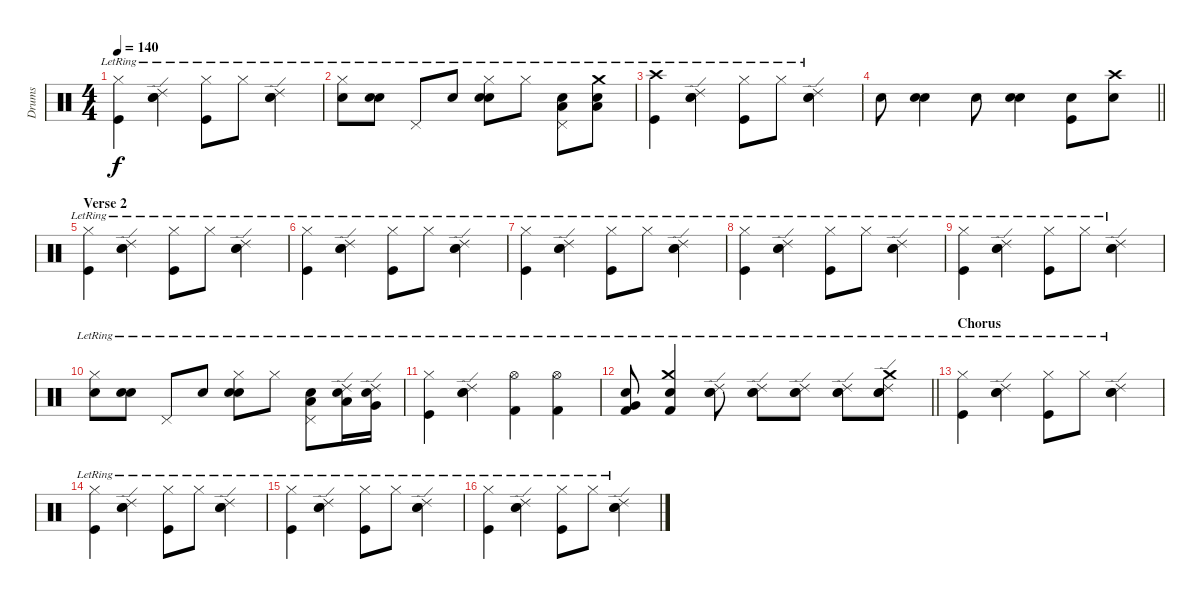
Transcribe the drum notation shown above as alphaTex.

\track ("Drums" "Drums") {instrument percussion}
\staff {score}
\articulation defaults
\ts (4 4)
\tempo 140
\clef neutral
\ks c
("Hi-Hat (closed)"{lr} "Kick (hit)"{lr}).4{dy f} ("Electric Snare (hit)"{lr} "Ride (edge) 2"{lr} "Snare (hit) 2"{lr}).4 ("Hi-Hat (closed)"{lr} "Kick (hit)"{lr}).8 "Hi-Hat (closed)"{lr}.8 ("Electric Snare (hit)"{lr} "Ride (edge) 2"{lr} "Snare (hit) 2"{lr}).4 |
("Hi-Hat (closed)"{lr} "Snare (hit) 2"{lr}).8 ("Snare (hit) 2"{lr} "Electric Snare (hit)"{lr}).8 "Pedal Hi-Hat (hit)"{lr}.8 "Snare (hit) 2"{lr}.8 ("Hi-Hat (closed)"{lr} "Snare (hit) 2"{lr} "Electric Snare (hit)"{lr}).8 "Hi-Hat (closed)"{lr}.8 ("Pedal Hi-Hat (hit)"{lr} "Snare (hit) 2"{lr} "Low Tom (hit)"{lr}).8 ("Crash medium (hit)"{lr} "Snare (hit) 2"{lr} "Low Tom (hit)"{lr}).8 |
("Crash high (hit)"{lr} "Kick (hit)"{lr}).4 ("Electric Snare (hit)"{lr} "Ride (edge) 2"{lr} "Snare (hit) 2"{lr}).4 ("Hi-Hat (closed)"{lr} "Kick (hit)"{lr}).8 "Hi-Hat (closed)"{lr}.8 ("Electric Snare (hit)"{lr} "Ride (edge) 2"{lr} "Snare (hit) 2"{lr}).4 |
\barLineRight lightlight "Snare (hit) 2".8
("Snare (hit) 2" "Electric Snare (hit)").4 "Snare (hit) 2".8 ("Snare (hit) 2" "Electric Snare (hit)").4 ("Snare (hit) 2" "Kick (hit)").8 ("Crash high (hit)" "Snare (hit) 2").8 |
\section ("" "Verse 2")
("Hi-Hat (closed)"{lr} "Kick (hit)"{lr}).4 ("Electric Snare (hit)"{lr} "Ride (edge) 2"{lr} "Snare (hit) 2"{lr}).4 ("Hi-Hat (closed)"{lr} "Kick (hit)"{lr}).8 "Hi-Hat (closed)"{lr}.8 ("Electric Snare (hit)"{lr} "Ride (edge) 2"{lr} "Snare (hit) 2"{lr}).4 |
("Hi-Hat (closed)"{lr} "Kick (hit)"{lr}).4 ("Electric Snare (hit)"{lr} "Ride (edge) 2"{lr} "Snare (hit) 2"{lr}).4 ("Hi-Hat (closed)"{lr} "Kick (hit)"{lr}).8 "Hi-Hat (closed)"{lr}.8 ("Electric Snare (hit)"{lr} "Ride (edge) 2"{lr} "Snare (hit) 2"{lr}).4 |
("Hi-Hat (closed)"{lr} "Kick (hit)"{lr}).4 ("Electric Snare (hit)"{lr} "Ride (edge) 2"{lr} "Snare (hit) 2"{lr}).4 ("Hi-Hat (closed)"{lr} "Kick (hit)"{lr}).8 "Hi-Hat (closed)"{lr}.8 ("Electric Snare (hit)"{lr} "Ride (edge) 2"{lr} "Snare (hit) 2"{lr}).4 |
("Hi-Hat (closed)"{lr} "Kick (hit)"{lr}).4 ("Electric Snare (hit)"{lr} "Ride (edge) 2"{lr} "Snare (hit) 2"{lr}).4 ("Hi-Hat (closed)"{lr} "Kick (hit)"{lr}).8 "Hi-Hat (closed)"{lr}.8 ("Electric Snare (hit)"{lr} "Ride (edge) 2"{lr} "Snare (hit) 2"{lr}).4 |
("Hi-Hat (closed)"{lr} "Kick (hit)"{lr}).4 ("Electric Snare (hit)"{lr} "Ride (edge) 2"{lr} "Snare (hit) 2"{lr}).4 ("Hi-Hat (closed)"{lr} "Kick (hit)"{lr}).8 "Hi-Hat (closed)"{lr}.8 ("Electric Snare (hit)"{lr} "Ride (edge) 2"{lr} "Snare (hit) 2"{lr}).4 |
("Hi-Hat (closed)"{lr} "Snare (hit) 2"{lr}).8 ("Snare (hit) 2"{lr} "Electric Snare (hit)"{lr}).8 "Pedal Hi-Hat (hit)"{lr}.8 "Snare (hit) 2"{lr}.8 ("Hi-Hat (closed)"{lr} "Snare (hit) 2"{lr} "Electric Snare (hit)"{lr}).8 "Hi-Hat (closed)"{lr}.8 ("Pedal Hi-Hat (hit)"{lr} "Snare (hit) 2"{lr} "Low Tom (hit)"{lr}).8 ("Ride (edge) 2"{lr} "Snare (hit) 2"{lr} "Low Tom (hit)"{lr}).16 ("Ride (edge) 2"{lr} "Snare (hit) 2"{lr} "Very Low Tom (hit)"{lr}).16 |
("Hi-Hat (closed)"{lr} "Kick (hit)"{lr}).4 ("Electric Snare (hit)"{lr} "Ride (edge) 2"{lr} "Snare (hit) 2"{lr}).4 ("Kick (hit) 2"{lr} "Hi-Hat (open)"{lr}).4 ("Kick (hit) 2"{lr} "Hi-Hat (open)").4 |
\barLineRight lightlight
("Kick (hit) 2"{lr} "Very Low Tom (hit)"{lr} "Electric Snare (hit)"{lr}).8 ("Kick (hit) 2"{lr} "Crash medium (hit)" "Electric Snare (hit)"{lr}).4 ("Snare (hit) 2"{lr} "Electric Snare (hit)"{lr} "Ride (edge) 2"{lr}).8 ("Snare (hit) 2"{lr} "Electric Snare (hit)"{lr} "Ride (edge) 2"{lr}).8 ("Snare (hit) 2"{lr} "Electric Snare (hit)"{lr} "Ride (edge) 2"{lr}).8 ("Snare (hit) 2"{lr} "Electric Snare (hit)"{lr} "Ride (edge) 2"{lr}).8 ("Snare (hit) 2"{lr} "Electric Snare (hit)"{lr} "Ride (edge) 2"{lr} "Crash medium (hit)"{lr}).8 |
\section ("" "Chorus")
("Hi-Hat (closed)"{lr} "Kick (hit)"{lr}).4 ("Electric Snare (hit)"{lr} "Ride (edge) 2"{lr} "Snare (hit) 2"{lr}).4 ("Hi-Hat (closed)"{lr} "Kick (hit)"{lr}).8 "Hi-Hat (closed)"{lr}.8 ("Electric Snare (hit)"{lr} "Ride (edge) 2"{lr} "Snare (hit) 2"{lr}).4 |
("Hi-Hat (closed)"{lr} "Kick (hit)"{lr}).4 ("Electric Snare (hit)"{lr} "Ride (edge) 2"{lr} "Snare (hit) 2"{lr}).4 ("Hi-Hat (closed)"{lr} "Kick (hit)"{lr}).8 "Hi-Hat (closed)"{lr}.8 ("Electric Snare (hit)"{lr} "Ride (edge) 2"{lr} "Snare (hit) 2"{lr}).4 |
("Hi-Hat (closed)"{lr} "Kick (hit)"{lr}).4 ("Electric Snare (hit)"{lr} "Ride (edge) 2"{lr} "Snare (hit) 2"{lr}).4 ("Hi-Hat (closed)"{lr} "Kick (hit)"{lr}).8 "Hi-Hat (closed)"{lr}.8 ("Electric Snare (hit)"{lr} "Ride (edge) 2"{lr} "Snare (hit) 2"{lr}).4 |
("Hi-Hat (closed)"{lr} "Kick (hit)"{lr}).4 ("Electric Snare (hit)"{lr} "Ride (edge) 2"{lr} "Snare (hit) 2"{lr}).4 ("Hi-Hat (closed)"{lr} "Kick (hit)"{lr}).8 "Hi-Hat (closed)"{lr}.8 ("Electric Snare (hit)"{lr} "Ride (edge) 2"{lr} "Snare (hit) 2"{lr}).4
